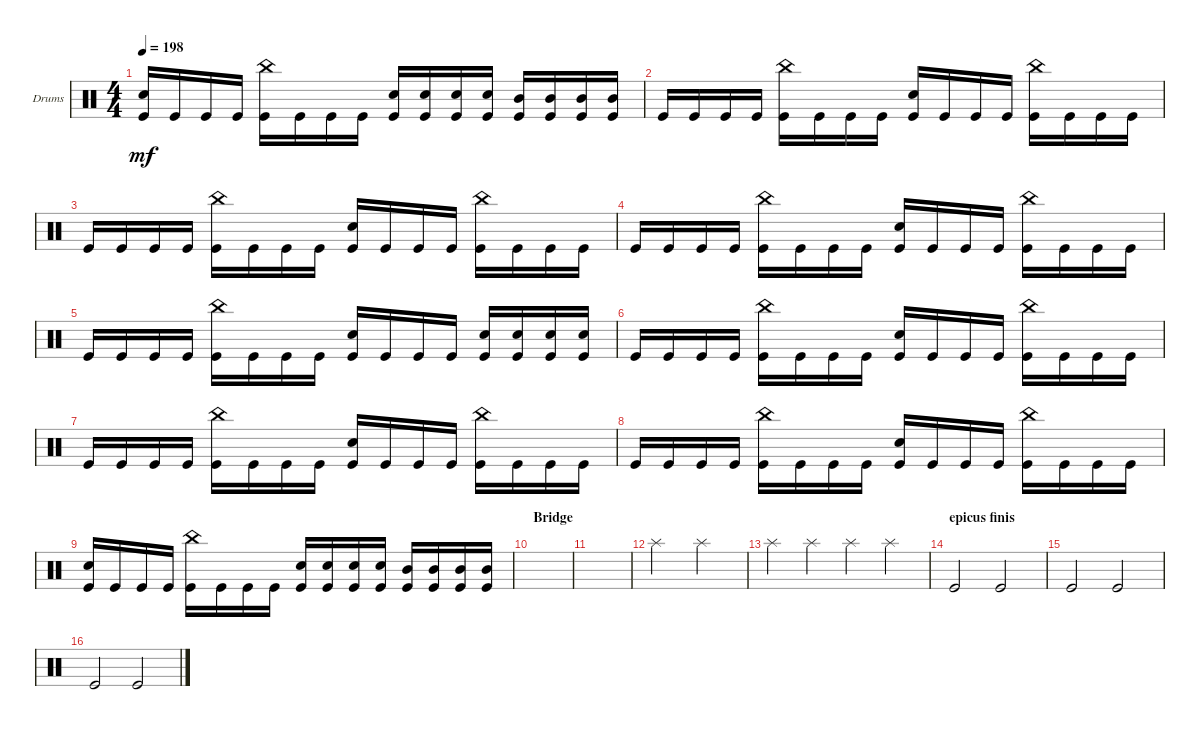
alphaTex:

\bracketExtendMode groupsimilarinstruments
\firstSystemTrackNameOrientation horizontal
\otherSystemsTrackNameOrientation horizontal
\track ("Drumkit" "Drums") {instrument percussion}
\staff {score}
\articulation defaults
\ts (4 4)
\tempo 198
\clef neutral
\ks c
("Kick (hit)" "Snare (hit) 2").16{dy mf} "Kick (hit)".16 "Kick (hit)".16 "Kick (hit)".16 ("Kick (hit)" "China (hit)").16 "Kick (hit)".16 "Kick (hit)".16 "Kick (hit)".16 ("Kick (hit)" "Snare (hit) 2").16 ("Kick (hit)" "Snare (hit) 2").16 ("Kick (hit)" "Snare (hit) 2").16 ("Kick (hit)" "Snare (hit) 2").16 ("Kick (hit)" "Mid Tom (hit)").16 ("Kick (hit)" "Mid Tom (hit)").16 ("Kick (hit)" "Mid Tom (hit)").16 ("Kick (hit)" "Mid Tom (hit)").16 |
"Kick (hit)".16 "Kick (hit)".16 "Kick (hit)".16 "Kick (hit)".16 ("Kick (hit)" "China (hit)").16 "Kick (hit)".16 "Kick (hit)".16 "Kick (hit)".16 ("Kick (hit)" "Snare (hit) 2").16 "Kick (hit)".16 "Kick (hit)".16 "Kick (hit)".16 ("Kick (hit)" "China (hit)").16 "Kick (hit)".16 "Kick (hit)".16 "Kick (hit)".16 |
"Kick (hit)".16 "Kick (hit)".16 "Kick (hit)".16 "Kick (hit)".16 ("Kick (hit)" "China (hit)").16 "Kick (hit)".16 "Kick (hit)".16 "Kick (hit)".16 ("Kick (hit)" "Snare (hit) 2").16 "Kick (hit)".16 "Kick (hit)".16 "Kick (hit)".16 ("Kick (hit)" "China (hit)").16 "Kick (hit)".16 "Kick (hit)".16 "Kick (hit)".16 |
"Kick (hit)".16 "Kick (hit)".16 "Kick (hit)".16 "Kick (hit)".16 ("Kick (hit)" "China (hit)").16 "Kick (hit)".16 "Kick (hit)".16 "Kick (hit)".16 ("Kick (hit)" "Snare (hit) 2").16 "Kick (hit)".16 "Kick (hit)".16 "Kick (hit)".16 ("Kick (hit)" "China (hit)").16 "Kick (hit)".16 "Kick (hit)".16 "Kick (hit)".16 |
"Kick (hit)".16 "Kick (hit)".16 "Kick (hit)".16 "Kick (hit)".16 ("Kick (hit)" "China (hit)").16 "Kick (hit)".16 "Kick (hit)".16 "Kick (hit)".16 ("Kick (hit)" "Snare (hit) 2").16 "Kick (hit)".16 "Kick (hit)".16 "Kick (hit)".16 ("Kick (hit)" "Snare (hit) 2").16 ("Kick (hit)" "Snare (hit) 2").16 ("Kick (hit)" "Snare (hit) 2").16 ("Kick (hit)" "Snare (hit) 2").16 |
"Kick (hit)".16 "Kick (hit)".16 "Kick (hit)".16 "Kick (hit)".16 ("Kick (hit)" "China (hit)").16 "Kick (hit)".16 "Kick (hit)".16 "Kick (hit)".16 ("Kick (hit)" "Snare (hit) 2").16 "Kick (hit)".16 "Kick (hit)".16 "Kick (hit)".16 ("Kick (hit)" "China (hit)").16 "Kick (hit)".16 "Kick (hit)".16 "Kick (hit)".16 |
"Kick (hit)".16 "Kick (hit)".16 "Kick (hit)".16 "Kick (hit)".16 ("Kick (hit)" "China (hit)").16 "Kick (hit)".16 "Kick (hit)".16 "Kick (hit)".16 ("Kick (hit)" "Snare (hit) 2").16 "Kick (hit)".16 "Kick (hit)".16 "Kick (hit)".16 ("Kick (hit)" "China (hit)").16 "Kick (hit)".16 "Kick (hit)".16 "Kick (hit)".16 |
"Kick (hit)".16 "Kick (hit)".16 "Kick (hit)".16 "Kick (hit)".16 ("Kick (hit)" "China (hit)").16 "Kick (hit)".16 "Kick (hit)".16 "Kick (hit)".16 ("Kick (hit)" "Snare (hit) 2").16 "Kick (hit)".16 "Kick (hit)".16 "Kick (hit)".16 ("Kick (hit)" "China (hit)").16 "Kick (hit)".16 "Kick (hit)".16 "Kick (hit)".16 |
("Kick (hit)" "Snare (hit) 2").16 "Kick (hit)".16 "Kick (hit)".16 "Kick (hit)".16 ("Kick (hit)" "China (hit)").16 "Kick (hit)".16 "Kick (hit)".16 "Kick (hit)".16 ("Kick (hit)" "Snare (hit) 2").16 ("Kick (hit)" "Snare (hit) 2").16 ("Kick (hit)" "Snare (hit) 2").16 ("Kick (hit)" "Snare (hit) 2").16 ("Kick (hit)" "Mid Tom (hit)").16 ("Kick (hit)" "Mid Tom (hit)").16 ("Kick (hit)" "Mid Tom (hit)").16 ("Kick (hit)" "Mid Tom (hit)").16 |
\section ("" "Bridge")
|
|
"Splash (hit)".2 "Splash (hit)".2 |
"Splash (hit)".4 "Splash (hit)".4 "Splash (hit)".4 "Splash (hit)".4 |
\section ("" "epicus finis")
"Kick (hit)".2 "Kick (hit)".2 |
"Kick (hit)".2 "Kick (hit)".2 |
"Kick (hit)".2 "Kick (hit)".2
